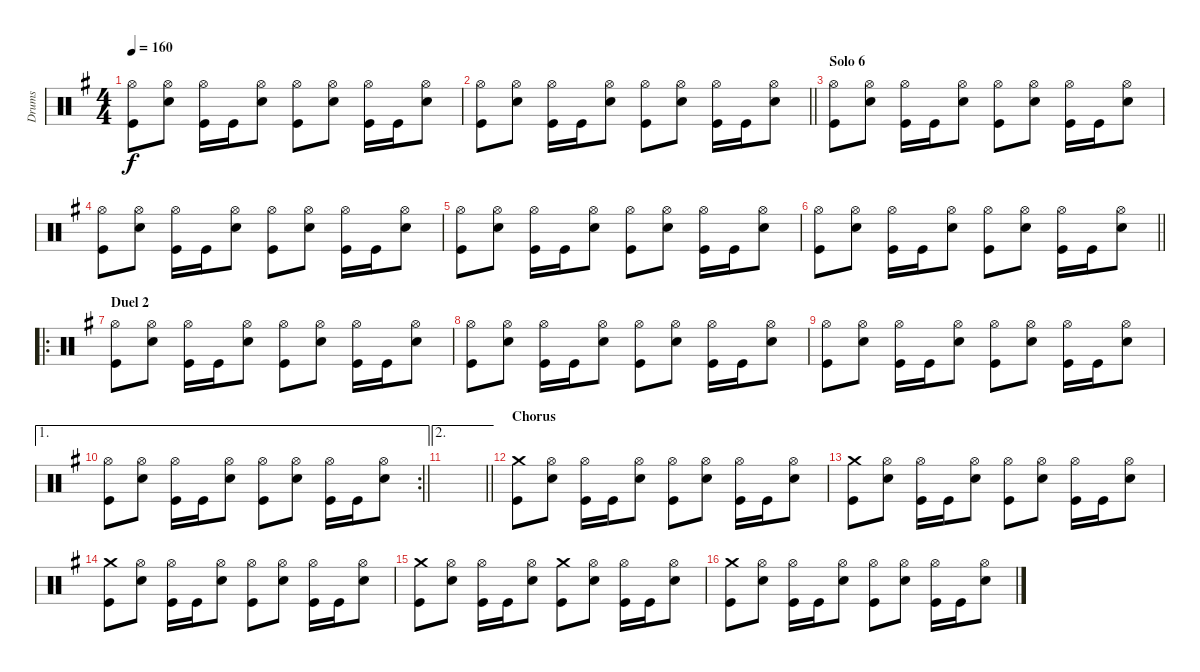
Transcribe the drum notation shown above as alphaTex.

\track ("Drums" "Drums") {instrument percussion}
\staff {score}
\articulation defaults
\ts (4 4)
\tempo 160
\clef neutral
\ks eminor
("Hi-Hat (open)" "Kick (hit)").8{dy f} ("Hi-Hat (open)" "Snare (hit) 2").8 ("Hi-Hat (open)" "Kick (hit)").16 "Kick (hit)".16 ("Hi-Hat (open)" "Snare (hit) 2").8 ("Hi-Hat (open)" "Kick (hit)").8 ("Hi-Hat (open)" "Snare (hit) 2").8 ("Hi-Hat (open)" "Kick (hit)").16 "Kick (hit)".16 ("Hi-Hat (open)" "Snare (hit) 2").8 |
\barLineRight lightlight
("Hi-Hat (open)" "Kick (hit)").8 ("Hi-Hat (open)" "Snare (hit) 2").8 ("Hi-Hat (open)" "Kick (hit)").16 "Kick (hit)".16 ("Hi-Hat (open)" "Snare (hit) 2").8 ("Hi-Hat (open)" "Kick (hit)").8 ("Hi-Hat (open)" "Snare (hit) 2").8 ("Hi-Hat (open)" "Kick (hit)").16 "Kick (hit)".16 ("Hi-Hat (open)" "Snare (hit) 2").8 |
\section ("" "Solo 6")
("Hi-Hat (open)" "Kick (hit)").8 ("Hi-Hat (open)" "Snare (hit) 2").8 ("Hi-Hat (open)" "Kick (hit)").16 "Kick (hit)".16 ("Hi-Hat (open)" "Snare (hit) 2").8 ("Hi-Hat (open)" "Kick (hit)").8 ("Hi-Hat (open)" "Snare (hit) 2").8 ("Hi-Hat (open)" "Kick (hit)").16 "Kick (hit)".16 ("Hi-Hat (open)" "Snare (hit) 2").8 |
("Hi-Hat (open)" "Kick (hit)").8 ("Hi-Hat (open)" "Snare (hit) 2").8 ("Hi-Hat (open)" "Kick (hit)").16 "Kick (hit)".16 ("Hi-Hat (open)" "Snare (hit) 2").8 ("Hi-Hat (open)" "Kick (hit)").8 ("Hi-Hat (open)" "Snare (hit) 2").8 ("Hi-Hat (open)" "Kick (hit)").16 "Kick (hit)".16 ("Hi-Hat (open)" "Snare (hit) 2").8 |
("Hi-Hat (open)" "Kick (hit)").8 ("Hi-Hat (open)" "Snare (hit) 2").8 ("Hi-Hat (open)" "Kick (hit)").16 "Kick (hit)".16 ("Hi-Hat (open)" "Snare (hit) 2").8 ("Hi-Hat (open)" "Kick (hit)").8 ("Hi-Hat (open)" "Snare (hit) 2").8 ("Hi-Hat (open)" "Kick (hit)").16 "Kick (hit)".16 ("Hi-Hat (open)" "Snare (hit) 2").8 |
\barLineRight lightlight
("Hi-Hat (open)" "Kick (hit)").8 ("Hi-Hat (open)" "Snare (hit) 2").8 ("Hi-Hat (open)" "Kick (hit)").16 "Kick (hit)".16 ("Hi-Hat (open)" "Snare (hit) 2").8 ("Hi-Hat (open)" "Kick (hit)").8 ("Hi-Hat (open)" "Snare (hit) 2").8 ("Hi-Hat (open)" "Kick (hit)").16 "Kick (hit)".16 ("Hi-Hat (open)" "Snare (hit) 2").8 |
\ro
\section ("" "Duel 2")
("Hi-Hat (open)" "Kick (hit)").8 ("Hi-Hat (open)" "Snare (hit) 2").8 ("Hi-Hat (open)" "Kick (hit)").16 "Kick (hit)".16 ("Hi-Hat (open)" "Snare (hit) 2").8 ("Hi-Hat (open)" "Kick (hit)").8 ("Hi-Hat (open)" "Snare (hit) 2").8 ("Hi-Hat (open)" "Kick (hit)").16 "Kick (hit)".16 ("Hi-Hat (open)" "Snare (hit) 2").8 |
("Hi-Hat (open)" "Kick (hit)").8 ("Hi-Hat (open)" "Snare (hit) 2").8 ("Hi-Hat (open)" "Kick (hit)").16 "Kick (hit)".16 ("Hi-Hat (open)" "Snare (hit) 2").8 ("Hi-Hat (open)" "Kick (hit)").8 ("Hi-Hat (open)" "Snare (hit) 2").8 ("Hi-Hat (open)" "Kick (hit)").16 "Kick (hit)".16 ("Hi-Hat (open)" "Snare (hit) 2").8 |
("Hi-Hat (open)" "Kick (hit)").8 ("Hi-Hat (open)" "Snare (hit) 2").8 ("Hi-Hat (open)" "Kick (hit)").16 "Kick (hit)".16 ("Hi-Hat (open)" "Snare (hit) 2").8 ("Hi-Hat (open)" "Kick (hit)").8 ("Hi-Hat (open)" "Snare (hit) 2").8 ("Hi-Hat (open)" "Kick (hit)").16 "Kick (hit)".16 ("Hi-Hat (open)" "Snare (hit) 2").8 |
\ae 1
\rc 2
\barLineRight lightlight
("Hi-Hat (open)" "Kick (hit)").8 ("Hi-Hat (open)" "Snare (hit) 2").8 ("Hi-Hat (open)" "Kick (hit)").16 "Kick (hit)".16 ("Hi-Hat (open)" "Snare (hit) 2").8 ("Hi-Hat (open)" "Kick (hit)").8 ("Hi-Hat (open)" "Snare (hit) 2").8 ("Hi-Hat (open)" "Kick (hit)").16 "Kick (hit)".16 ("Hi-Hat (open)" "Snare (hit) 2").8 |
\ae 2
\barLineRight lightlight
|
\section ("" "Chorus")
("Crash medium (hit)" "Kick (hit)").8 ("Hi-Hat (open)" "Snare (hit) 2").8 ("Hi-Hat (open)" "Kick (hit)").16 "Kick (hit)".16 ("Hi-Hat (open)" "Snare (hit) 2").8 ("Hi-Hat (open)" "Kick (hit)").8 ("Hi-Hat (open)" "Snare (hit) 2").8 ("Hi-Hat (open)" "Kick (hit)").16 "Kick (hit)".16 ("Hi-Hat (open)" "Snare (hit) 2").8 |
("Crash medium (hit)" "Kick (hit)").8 ("Hi-Hat (open)" "Snare (hit) 2").8 ("Hi-Hat (open)" "Kick (hit)").16 "Kick (hit)".16 ("Hi-Hat (open)" "Snare (hit) 2").8 ("Hi-Hat (open)" "Kick (hit)").8 ("Hi-Hat (open)" "Snare (hit) 2").8 ("Hi-Hat (open)" "Kick (hit)").16 "Kick (hit)".16 ("Hi-Hat (open)" "Snare (hit) 2").8 |
("Crash medium (hit)" "Kick (hit)").8 ("Hi-Hat (open)" "Snare (hit) 2").8 ("Hi-Hat (open)" "Kick (hit)").16 "Kick (hit)".16 ("Hi-Hat (open)" "Snare (hit) 2").8 ("Hi-Hat (open)" "Kick (hit)").8 ("Hi-Hat (open)" "Snare (hit) 2").8 ("Hi-Hat (open)" "Kick (hit)").16 "Kick (hit)".16 ("Hi-Hat (open)" "Snare (hit) 2").8 |
("Crash medium (hit)" "Kick (hit)").8 ("Hi-Hat (open)" "Snare (hit) 2").8 ("Hi-Hat (open)" "Kick (hit)").16 "Kick (hit)".16 ("Hi-Hat (open)" "Snare (hit) 2").8 ("Crash medium (hit)" "Kick (hit)").8 ("Hi-Hat (open)" "Snare (hit) 2").8 ("Hi-Hat (open)" "Kick (hit)").16 "Kick (hit)".16 ("Hi-Hat (open)" "Snare (hit) 2").8 |
("Crash medium (hit)" "Kick (hit)").8 ("Hi-Hat (open)" "Snare (hit) 2").8 ("Hi-Hat (open)" "Kick (hit)").16 "Kick (hit)".16 ("Hi-Hat (open)" "Snare (hit) 2").8 ("Hi-Hat (open)" "Kick (hit)").8 ("Hi-Hat (open)" "Snare (hit) 2").8 ("Hi-Hat (open)" "Kick (hit)").16 "Kick (hit)".16 ("Hi-Hat (open)" "Snare (hit) 2").8
